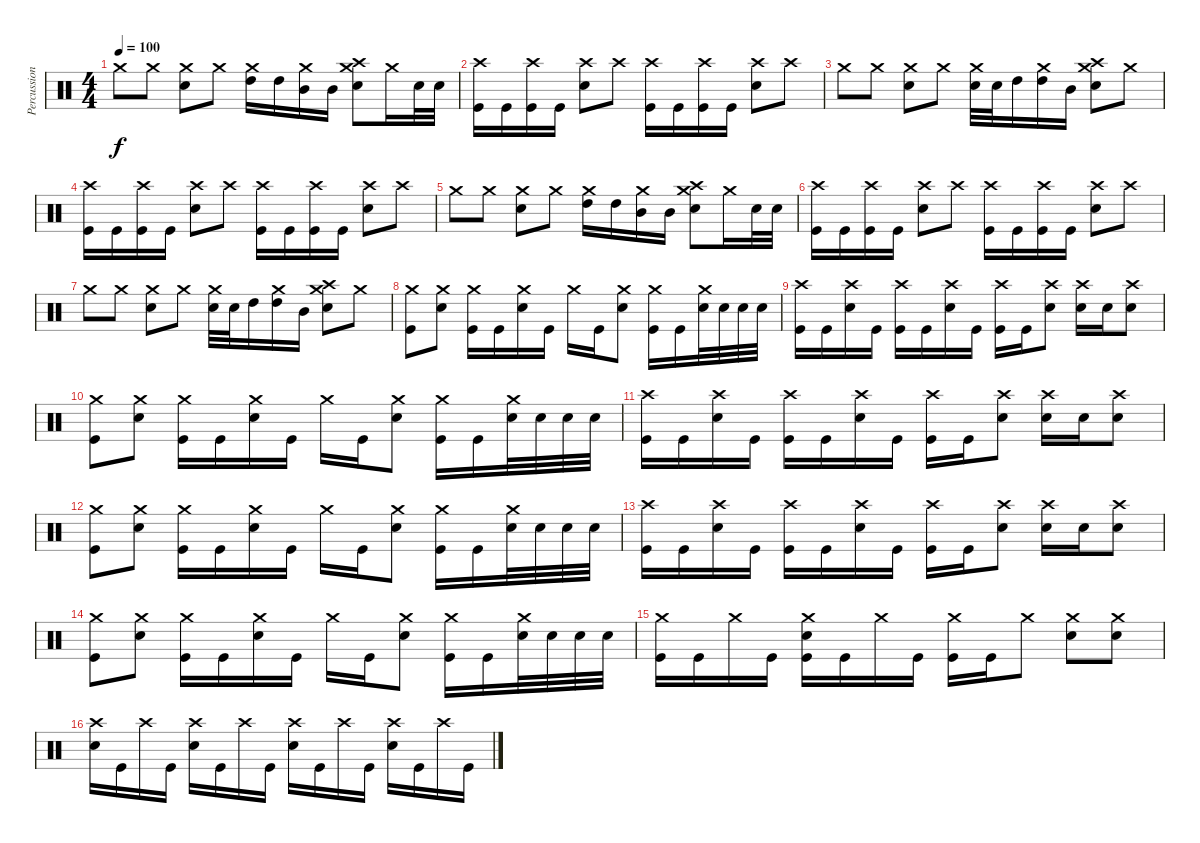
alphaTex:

\track ("Percussion" "Percussion") {instrument percussion}
\staff {score}
\articulation defaults
\ts (4 4)
\tempo 100
\clef neutral
\ks c "Crash medium (hit)".8{dy f} "Crash medium (hit)".8
("Crash medium (hit)" "Electric Snare (hit)").8 "Crash medium (hit)".8 ("Crash medium (hit)" "High Tom (hit)").16 "High Tom (hit)".16 ("Crash medium (hit)" "Mid Tom (hit)").16 "Mid Tom (hit)".16 ("Crash high (hit)" "Crash medium (hit)" "Electric Snare (hit)").8 "Crash medium (hit)".16 "Electric Snare (hit)".32 "Electric Snare (hit)".32 |
("Crash high (hit)" "Kick (hit)").16 "Kick (hit)".16 ("Crash high (hit)" "Kick (hit)").16 "Kick (hit)".16 ("Crash high (hit)" "Electric Snare (hit)").8 "Crash high (hit)".8 ("Crash high (hit)" "Kick (hit)").16 "Kick (hit)".16 ("Crash high (hit)" "Kick (hit)").16 "Kick (hit)".16 ("Crash high (hit)" "Electric Snare (hit)").8 "Crash high (hit)".8 |
"Crash medium (hit)".8 "Crash medium (hit)".8 ("Crash medium (hit)" "Electric Snare (hit)").8 "Crash medium (hit)".8 ("Crash medium (hit)" "Electric Snare (hit)").32 "Electric Snare (hit)".32 "High Tom (hit)".16 ("Crash medium (hit)" "High Tom (hit)").16 "Mid Tom (hit)".16 ("Crash high (hit)" "Crash medium (hit)" "Electric Snare (hit)").8 "Crash medium (hit)".8 |
("Crash high (hit)" "Kick (hit)").16 "Kick (hit)".16 ("Crash high (hit)" "Kick (hit)").16 "Kick (hit)".16 ("Crash high (hit)" "Electric Snare (hit)").8 "Crash high (hit)".8 ("Crash high (hit)" "Kick (hit)").16 "Kick (hit)".16 ("Crash high (hit)" "Kick (hit)").16 "Kick (hit)".16 ("Crash high (hit)" "Electric Snare (hit)").8 "Crash high (hit)".8 |
"Crash medium (hit)".8 "Crash medium (hit)".8 ("Crash medium (hit)" "Electric Snare (hit)").8 "Crash medium (hit)".8 ("Crash medium (hit)" "High Tom (hit)").16 "High Tom (hit)".16 ("Crash medium (hit)" "Mid Tom (hit)").16 "Mid Tom (hit)".16 ("Crash high (hit)" "Crash medium (hit)" "Electric Snare (hit)").8 "Crash medium (hit)".16 "Electric Snare (hit)".32 "Electric Snare (hit)".32 |
("Crash high (hit)" "Kick (hit)").16 "Kick (hit)".16 ("Crash high (hit)" "Kick (hit)").16 "Kick (hit)".16 ("Crash high (hit)" "Electric Snare (hit)").8 "Crash high (hit)".8 ("Crash high (hit)" "Kick (hit)").16 "Kick (hit)".16 ("Crash high (hit)" "Kick (hit)").16 "Kick (hit)".16 ("Crash high (hit)" "Electric Snare (hit)").8 "Crash high (hit)".8 |
"Crash medium (hit)".8 "Crash medium (hit)".8 ("Crash medium (hit)" "Electric Snare (hit)").8 "Crash medium (hit)".8 ("Crash medium (hit)" "Electric Snare (hit)").32 "Electric Snare (hit)".32 "High Tom (hit)".16 ("Crash medium (hit)" "High Tom (hit)").16 "Mid Tom (hit)".16 ("Crash high (hit)" "Crash medium (hit)" "Electric Snare (hit)").8 "Crash medium (hit)".8 |
("Crash medium (hit)" "Kick (hit)").8 ("Crash medium (hit)" "Electric Snare (hit)").8 ("Crash medium (hit)" "Kick (hit)").16 "Kick (hit)".16 ("Crash medium (hit)" "Electric Snare (hit)").16 "Kick (hit)".16 "Crash medium (hit)".16 "Kick (hit)".16 ("Crash medium (hit)" "Electric Snare (hit)").8 ("Crash medium (hit)" "Kick (hit)").16 "Kick (hit)".16 ("Crash medium (hit)" "Electric Snare (hit)").32 "Electric Snare (hit)".32 "Electric Snare (hit)".32 "Electric Snare (hit)".32 |
("Crash high (hit)" "Kick (hit)").16 "Kick (hit)".16 ("Crash high (hit)" "Electric Snare (hit)").16 "Kick (hit)".16 ("Crash high (hit)" "Kick (hit)").16 "Kick (hit)".16 ("Crash high (hit)" "Electric Snare (hit)").16 "Kick (hit)".16 ("Crash high (hit)" "Kick (hit)").16 "Kick (hit)".16 ("Crash high (hit)" "Electric Snare (hit)").8 ("Crash high (hit)" "Electric Snare (hit)").16 "Electric Snare (hit)".16 ("Crash high (hit)" "Electric Snare (hit)").8 |
("Crash medium (hit)" "Kick (hit)").8 ("Crash medium (hit)" "Electric Snare (hit)").8 ("Crash medium (hit)" "Kick (hit)").16 "Kick (hit)".16 ("Crash medium (hit)" "Electric Snare (hit)").16 "Kick (hit)".16 "Crash medium (hit)".16 "Kick (hit)".16 ("Crash medium (hit)" "Electric Snare (hit)").8 ("Crash medium (hit)" "Kick (hit)").16 "Kick (hit)".16 ("Crash medium (hit)" "Electric Snare (hit)").32 "Electric Snare (hit)".32 "Electric Snare (hit)".32 "Electric Snare (hit)".32 |
("Crash high (hit)" "Kick (hit)").16 "Kick (hit)".16 ("Crash high (hit)" "Electric Snare (hit)").16 "Kick (hit)".16 ("Crash high (hit)" "Kick (hit)").16 "Kick (hit)".16 ("Crash high (hit)" "Electric Snare (hit)").16 "Kick (hit)".16 ("Crash high (hit)" "Kick (hit)").16 "Kick (hit)".16 ("Crash high (hit)" "Electric Snare (hit)").8 ("Crash high (hit)" "Electric Snare (hit)").16 "Electric Snare (hit)".16 ("Crash high (hit)" "Electric Snare (hit)").8 |
("Crash medium (hit)" "Kick (hit)").8 ("Crash medium (hit)" "Electric Snare (hit)").8 ("Crash medium (hit)" "Kick (hit)").16 "Kick (hit)".16 ("Crash medium (hit)" "Electric Snare (hit)").16 "Kick (hit)".16 "Crash medium (hit)".16 "Kick (hit)".16 ("Crash medium (hit)" "Electric Snare (hit)").8 ("Crash medium (hit)" "Kick (hit)").16 "Kick (hit)".16 ("Crash medium (hit)" "Electric Snare (hit)").32 "Electric Snare (hit)".32 "Electric Snare (hit)".32 "Electric Snare (hit)".32 |
("Crash high (hit)" "Kick (hit)").16 "Kick (hit)".16 ("Crash high (hit)" "Electric Snare (hit)").16 "Kick (hit)".16 ("Crash high (hit)" "Kick (hit)").16 "Kick (hit)".16 ("Crash high (hit)" "Electric Snare (hit)").16 "Kick (hit)".16 ("Crash high (hit)" "Kick (hit)").16 "Kick (hit)".16 ("Crash high (hit)" "Electric Snare (hit)").8 ("Crash high (hit)" "Electric Snare (hit)").16 "Electric Snare (hit)".16 ("Crash high (hit)" "Electric Snare (hit)").8 |
("Crash medium (hit)" "Kick (hit)").8 ("Crash medium (hit)" "Electric Snare (hit)").8 ("Crash medium (hit)" "Kick (hit)").16 "Kick (hit)".16 ("Crash medium (hit)" "Electric Snare (hit)").16 "Kick (hit)".16 "Crash medium (hit)".16 "Kick (hit)".16 ("Crash medium (hit)" "Electric Snare (hit)").8 ("Crash medium (hit)" "Kick (hit)").16 "Kick (hit)".16 ("Crash medium (hit)" "Electric Snare (hit)").32 "Electric Snare (hit)".32 "Electric Snare (hit)".32 "Electric Snare (hit)".32 |
("Crash medium (hit)" "Kick (hit)").16 "Kick (hit)".16 "Crash medium (hit)".16 "Kick (hit)".16 ("Crash medium (hit)" "Electric Snare (hit)" "Kick (hit)").16 "Kick (hit)".16 "Crash medium (hit)".16 "Kick (hit)".16 ("Crash medium (hit)" "Kick (hit)").16 "Kick (hit)".16 "Crash medium (hit)".8 ("Crash medium (hit)" "Electric Snare (hit)").8 ("Crash medium (hit)" "Electric Snare (hit)").8 |
("Crash high (hit)" "Electric Snare (hit)").16 "Kick (hit)".16 "Crash high (hit)".16 "Kick (hit)".16 ("Crash high (hit)" "Electric Snare (hit)").16 "Kick (hit)".16 "Crash high (hit)".16 "Kick (hit)".16 ("Crash high (hit)" "Electric Snare (hit)").16 "Kick (hit)".16 "Crash high (hit)".16 "Kick (hit)".16 ("Crash high (hit)" "Electric Snare (hit)").16 "Kick (hit)".16 "Crash high (hit)".16 "Kick (hit)".16
